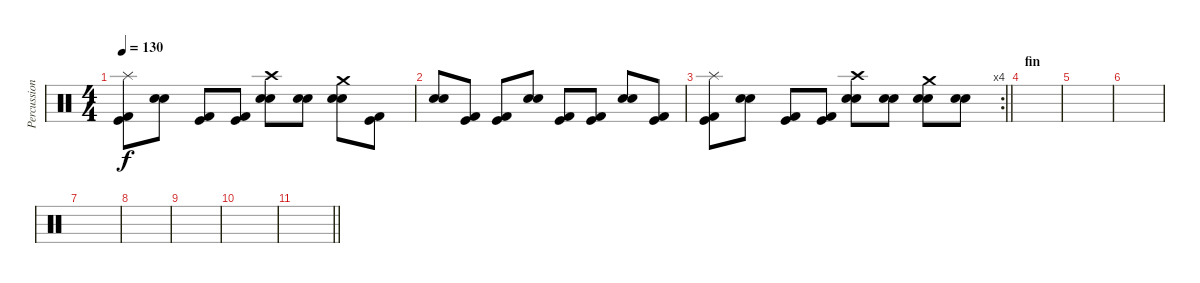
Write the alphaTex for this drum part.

\track ("Percussions" "Percussion") {instrument percussion}
\staff {score}
\articulation defaults
\ts (4 4)
\tempo 130
\clef neutral
\ks c
("Splash (hit)" "Kick (hit)" "Kick (hit) 2").8{dy f} ("Snare (hit) 2" "Electric Snare (hit)").8 ("Kick (hit) 2" "Kick (hit)").8 ("Kick (hit)" "Kick (hit) 2").8 ("Crash high (hit)" "Snare (hit) 2" "Electric Snare (hit)").8 ("Snare (hit) 2" "Electric Snare (hit)").8 ("Crash medium (hit)" "Snare (hit) 2" "Electric Snare (hit)").8 ("Kick (hit)" "Kick (hit) 2").8 |
("Snare (hit) 2" "Electric Snare (hit)").8 ("Kick (hit) 2" "Kick (hit)").8 ("Kick (hit)" "Kick (hit) 2").8 ("Snare (hit) 2" "Electric Snare (hit)").8 ("Kick (hit) 2" "Kick (hit)").8 ("Kick (hit)" "Kick (hit) 2").8 ("Snare (hit) 2" "Electric Snare (hit)").8 ("Kick (hit) 2" "Kick (hit)").8 |
\rc 4
\barLineRight lightlight
("Splash (hit)" "Kick (hit)" "Kick (hit) 2").8 ("Snare (hit) 2" "Electric Snare (hit)").8 ("Kick (hit) 2" "Kick (hit)").8 ("Kick (hit)" "Kick (hit) 2").8 ("Crash high (hit)" "Snare (hit) 2" "Electric Snare (hit)").8 ("Snare (hit) 2" "Electric Snare (hit)").8 ("Crash medium (hit)" "Snare (hit) 2" "Electric Snare (hit)").8 ("Snare (hit) 2" "Electric Snare (hit)").8 |
\section ("" "fin")
|
|
|
|
|
|
|
\barLineRight lightlight
